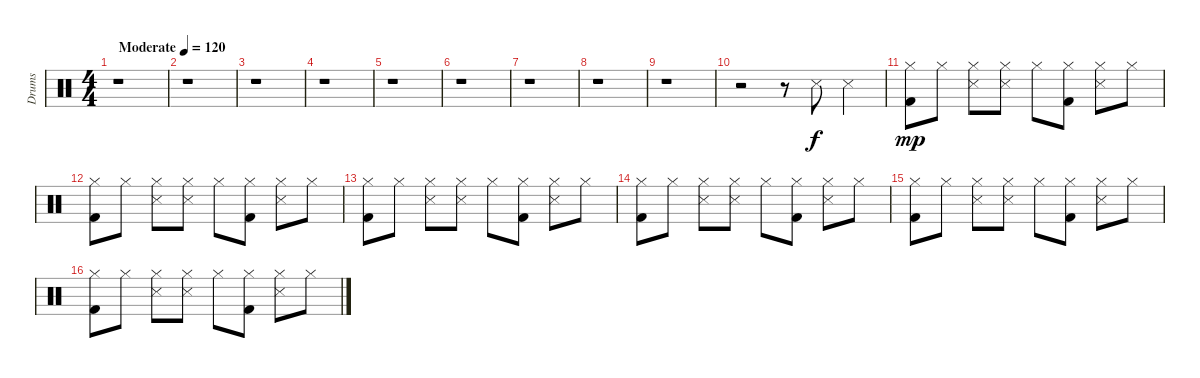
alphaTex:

\track ("Drums" "Drums") {instrument percussion}
\staff {score}
\articulation defaults
\ts (4 4)
\tempo (120 "Moderate")
\clef neutral
\ks c
r.1{dy f} |
r.1 |
r.1 |
r.1 |
r.1 |
r.1 |
r.1 |
r.1 |
r.1 |
r.2 r.8 "Snare (side stick) 3".8 "Snare (side stick) 3".4 |
("Hi-Hat (closed)" "Kick (hit) 2").8{dy mp} "Hi-Hat (closed)".8 ("Hi-Hat (closed)" "Snare (side stick) 3").8 ("Hi-Hat (closed)" "Snare (side stick) 3").8 "Hi-Hat (closed)".8 ("Hi-Hat (closed)" "Kick (hit) 2").8 ("Hi-Hat (closed)" "Snare (side stick) 3").8 "Hi-Hat (closed)".8 |
("Hi-Hat (closed)" "Kick (hit) 2").8 "Hi-Hat (closed)".8 ("Hi-Hat (closed)" "Snare (side stick) 3").8 ("Hi-Hat (closed)" "Snare (side stick) 3").8 "Hi-Hat (closed)".8 ("Hi-Hat (closed)" "Kick (hit) 2").8 ("Hi-Hat (closed)" "Snare (side stick) 3").8 "Hi-Hat (closed)".8 |
("Hi-Hat (closed)" "Kick (hit) 2").8 "Hi-Hat (closed)".8 ("Hi-Hat (closed)" "Snare (side stick) 3").8 ("Hi-Hat (closed)" "Snare (side stick) 3").8 "Hi-Hat (closed)".8 ("Hi-Hat (closed)" "Kick (hit) 2").8 ("Hi-Hat (closed)" "Snare (side stick) 3").8 "Hi-Hat (closed)".8 |
("Hi-Hat (closed)" "Kick (hit) 2").8 "Hi-Hat (closed)".8 ("Hi-Hat (closed)" "Snare (side stick) 3").8 ("Hi-Hat (closed)" "Snare (side stick) 3").8 "Hi-Hat (closed)".8 ("Hi-Hat (closed)" "Kick (hit) 2").8 ("Hi-Hat (closed)" "Snare (side stick) 3").8 "Hi-Hat (closed)".8 |
("Hi-Hat (closed)" "Kick (hit) 2").8 "Hi-Hat (closed)".8 ("Hi-Hat (closed)" "Snare (side stick) 3").8 ("Hi-Hat (closed)" "Snare (side stick) 3").8 "Hi-Hat (closed)".8 ("Hi-Hat (closed)" "Kick (hit) 2").8 ("Hi-Hat (closed)" "Snare (side stick) 3").8 "Hi-Hat (closed)".8 |
("Hi-Hat (closed)" "Kick (hit) 2").8 "Hi-Hat (closed)".8 ("Hi-Hat (closed)" "Snare (side stick) 3").8 ("Hi-Hat (closed)" "Snare (side stick) 3").8 "Hi-Hat (closed)".8 ("Hi-Hat (closed)" "Kick (hit) 2").8 ("Hi-Hat (closed)" "Snare (side stick) 3").8 "Hi-Hat (closed)".8
